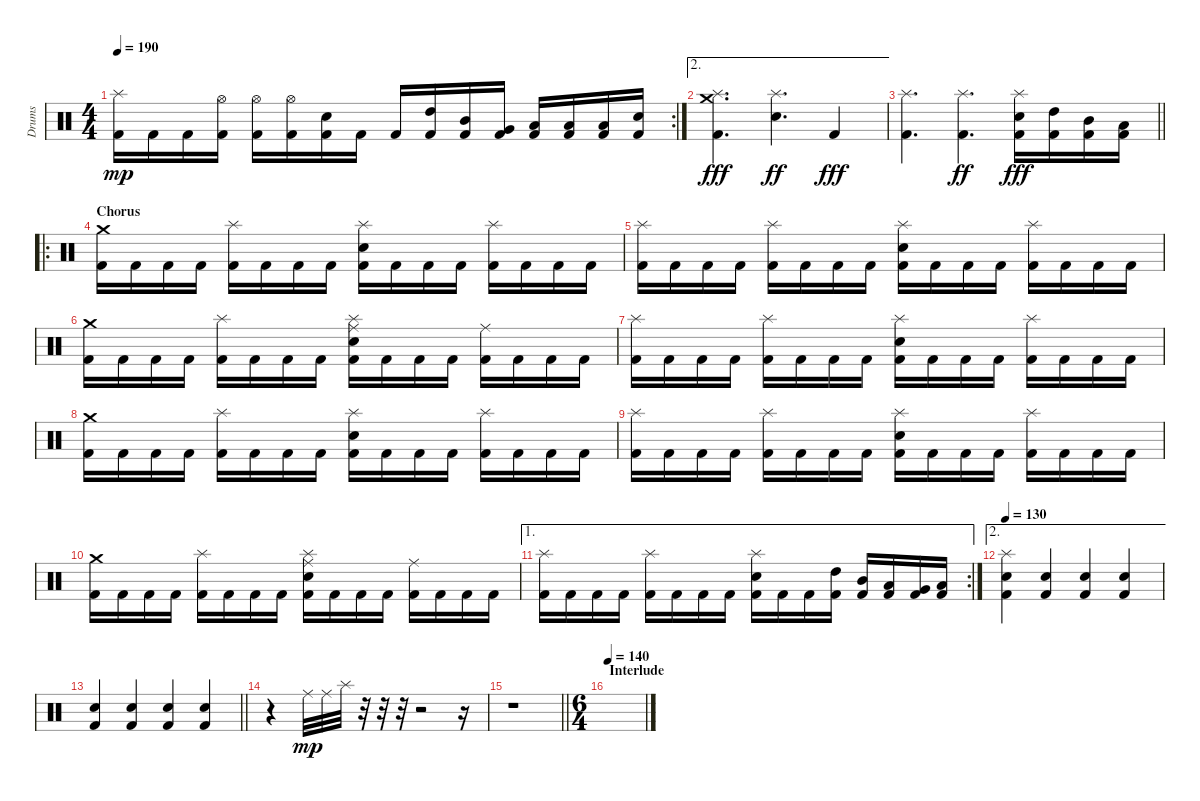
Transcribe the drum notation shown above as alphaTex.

\track ("Drums" "Drums") {instrument percussion}
\staff {score}
\articulation defaults
\rc 2
\ts (4 4)
\tempo 190
\clef neutral
\ks c
("Splash (hit)" "Kick (hit) 2").16{dy mp} "Kick (hit) 2".16 "Kick (hit) 2".16 ("Hi-Hat (open)" "Kick (hit) 2").16 ("Hi-Hat (open)" "Kick (hit) 2").16 ("Hi-Hat (open)" "Kick (hit) 2").16 ("Electric Snare (hit)" "Kick (hit) 2").16 "Kick (hit) 2".16 "Kick (hit) 2".16 ("High Tom (hit)" "Kick (hit) 2").16 ("Mid Tom (hit)" "Kick (hit) 2").16 ("Very Low Tom (hit)" "Kick (hit) 2").16 ("Low Tom (hit)" "Kick (hit) 2").16 ("Low Floor Tom (hit)" "Kick (hit) 2").16 ("Low Tom (hit)" "Kick (hit) 2").16 ("Electric Snare (hit)" "Kick (hit) 2").16 |
\ae 2
("Crash medium (hit)" "Splash (hit)" "Kick (hit) 2").4{d dy fff} ("Splash (hit)" "Electric Snare (hit)").4{d dy ff} "Kick (hit) 2".4{dy fff} |
\barLineRight lightlight
("Splash (hit)" "Kick (hit) 2").4{d} ("Splash (hit)" "Kick (hit) 2").4{d dy ff} ("Splash (hit)" "Electric Snare (hit)" "Kick (hit) 2").16{dy fff} ("High Tom (hit)" "Kick (hit) 2").16 ("Mid Tom (hit)" "Kick (hit) 2").16 ("Low Tom (hit)" "Kick (hit) 2").16 |
\ro
\section ("" "Chorus")
("Crash medium (hit)" "Kick (hit) 2").16 "Kick (hit) 2".16 "Kick (hit) 2".16 "Kick (hit) 2".16 ("Splash (hit)" "Kick (hit) 2").16 "Kick (hit) 2".16 "Kick (hit) 2".16 "Kick (hit) 2".16 ("Splash (hit)" "Electric Snare (hit)" "Kick (hit) 2").16 "Kick (hit) 2".16 "Kick (hit) 2".16 "Kick (hit) 2".16 ("Splash (hit)" "Kick (hit) 2").16 "Kick (hit) 2".16 "Kick (hit) 2".16 "Kick (hit) 2".16 |
("Splash (hit)" "Kick (hit) 2").16 "Kick (hit) 2".16 "Kick (hit) 2".16 "Kick (hit) 2".16 ("Splash (hit)" "Kick (hit) 2").16 "Kick (hit) 2".16 "Kick (hit) 2".16 "Kick (hit) 2".16 ("Splash (hit)" "Electric Snare (hit)" "Kick (hit) 2").16 "Kick (hit) 2".16 "Kick (hit) 2".16 "Kick (hit) 2".16 ("Splash (hit)" "Kick (hit) 2").16 "Kick (hit) 2".16 "Kick (hit) 2".16 "Kick (hit) 2".16 |
("Crash medium (hit)" "Kick (hit) 2").16 "Kick (hit) 2".16 "Kick (hit) 2".16 "Kick (hit) 2".16 ("Splash (hit)" "Kick (hit) 2").16 "Kick (hit) 2".16 "Kick (hit) 2".16 "Kick (hit) 2".16 ("Splash (hit)" "Ride (middle)" "Electric Snare (hit)" "Kick (hit) 2").16 "Kick (hit) 2".16 "Kick (hit) 2".16 "Kick (hit) 2".16 ("Ride (middle)" "Kick (hit) 2").16 "Kick (hit) 2".16 "Kick (hit) 2".16 "Kick (hit) 2".16 |
("Splash (hit)" "Kick (hit) 2").16 "Kick (hit) 2".16 "Kick (hit) 2".16 "Kick (hit) 2".16 ("Splash (hit)" "Kick (hit) 2").16 "Kick (hit) 2".16 "Kick (hit) 2".16 "Kick (hit) 2".16 ("Splash (hit)" "Electric Snare (hit)" "Kick (hit) 2").16 "Kick (hit) 2".16 "Kick (hit) 2".16 "Kick (hit) 2".16 ("Splash (hit)" "Kick (hit) 2").16 "Kick (hit) 2".16 "Kick (hit) 2".16 "Kick (hit) 2".16 |
("Crash medium (hit)" "Kick (hit) 2").16 "Kick (hit) 2".16 "Kick (hit) 2".16 "Kick (hit) 2".16 ("Splash (hit)" "Kick (hit) 2").16 "Kick (hit) 2".16 "Kick (hit) 2".16 "Kick (hit) 2".16 ("Splash (hit)" "Electric Snare (hit)" "Kick (hit) 2").16 "Kick (hit) 2".16 "Kick (hit) 2".16 "Kick (hit) 2".16 ("Splash (hit)" "Kick (hit) 2").16 "Kick (hit) 2".16 "Kick (hit) 2".16 "Kick (hit) 2".16 |
("Splash (hit)" "Kick (hit) 2").16 "Kick (hit) 2".16 "Kick (hit) 2".16 "Kick (hit) 2".16 ("Splash (hit)" "Kick (hit) 2").16 "Kick (hit) 2".16 "Kick (hit) 2".16 "Kick (hit) 2".16 ("Splash (hit)" "Electric Snare (hit)" "Kick (hit) 2").16 "Kick (hit) 2".16 "Kick (hit) 2".16 "Kick (hit) 2".16 ("Splash (hit)" "Kick (hit) 2").16 "Kick (hit) 2".16 "Kick (hit) 2".16 "Kick (hit) 2".16 |
("Crash medium (hit)" "Kick (hit) 2").16 "Kick (hit) 2".16 "Kick (hit) 2".16 "Kick (hit) 2".16 ("Splash (hit)" "Kick (hit) 2").16 "Kick (hit) 2".16 "Kick (hit) 2".16 "Kick (hit) 2".16 ("Splash (hit)" "Ride (middle)" "Electric Snare (hit)" "Kick (hit) 2").16 "Kick (hit) 2".16 "Kick (hit) 2".16 "Kick (hit) 2".16 ("Ride (middle)" "Kick (hit) 2").16 "Kick (hit) 2".16 "Kick (hit) 2".16 "Kick (hit) 2".16 |
\ae 1
\rc 2
("Splash (hit)" "Kick (hit) 2").16 "Kick (hit) 2".16 "Kick (hit) 2".16 "Kick (hit) 2".16 ("Splash (hit)" "Kick (hit) 2").16 "Kick (hit) 2".16 "Kick (hit) 2".16 "Kick (hit) 2".16 ("Splash (hit)" "Electric Snare (hit)" "Kick (hit) 2").16 "Kick (hit) 2".16 "Kick (hit) 2".16 ("High Tom (hit)" "Kick (hit) 2").16 ("Mid Tom (hit)" "Kick (hit) 2").16 ("Low Tom (hit)" "Kick (hit) 2").16 ("Very Low Tom (hit)" "Kick (hit) 2").16 ("Low Floor Tom (hit)" "Kick (hit) 2").16 |
\ae 2
\tempo 130
("Splash (hit)" "Electric Snare (hit)" "Kick (hit) 2").4 ("Electric Snare (hit)" "Kick (hit) 2").4 ("Electric Snare (hit)" "Kick (hit) 2").4 ("Electric Snare (hit)" "Kick (hit) 2").4 |
\barLineRight lightlight
("Electric Snare (hit)" "Kick (hit) 2").4 ("Electric Snare (hit)" "Kick (hit) 2").4 ("Electric Snare (hit)" "Kick (hit) 2").4 ("Electric Snare (hit)" "Kick (hit) 2").4 |
r.4 "Ride (middle)".32{dy mp} "Ride (middle)".32 "Splash (hit)".32 r.32 r.32 r.32 r.2 r.16 |
\barLineRight lightlight
r.1 |
\ts (6 4)
\section ("" "Interlude")
\tempo 140
